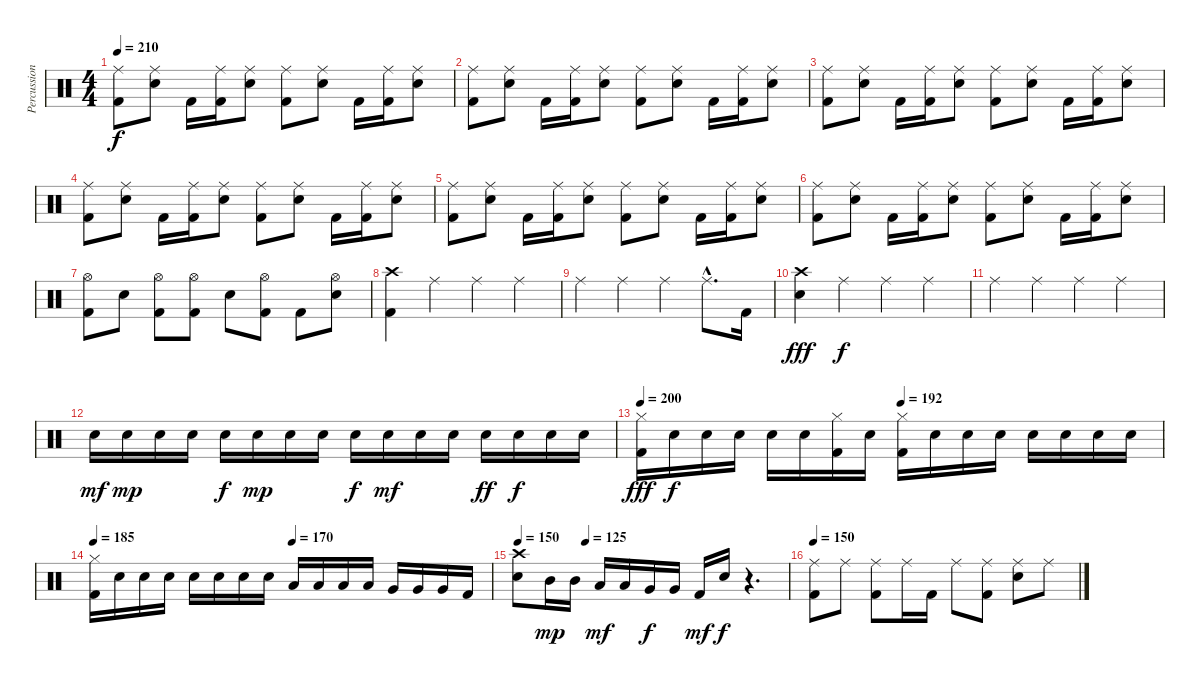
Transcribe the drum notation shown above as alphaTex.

\track ("Percussions" "Percussion") {instrument percussion}
\staff {score}
\articulation defaults
\ts (4 4)
\tempo 210
\clef neutral
\ks c
("Ride (middle)" "Kick (hit) 2").8{dy f} ("Ride (middle)" "Snare (hit) 2").8 "Kick (hit) 2".16 ("Ride (middle)" "Kick (hit) 2").16 ("Ride (middle)" "Snare (hit) 2").8 ("Ride (middle)" "Kick (hit) 2").8 ("Ride (middle)" "Snare (hit) 2").8 "Kick (hit) 2".16 ("Ride (middle)" "Kick (hit) 2").16 ("Ride (middle)" "Snare (hit) 2").8 |
("Ride (middle)" "Kick (hit) 2").8 ("Ride (middle)" "Snare (hit) 2").8 "Kick (hit) 2".16 ("Ride (middle)" "Kick (hit) 2").16 ("Ride (middle)" "Snare (hit) 2").8 ("Ride (middle)" "Kick (hit) 2").8 ("Ride (middle)" "Snare (hit) 2").8 "Kick (hit) 2".16 ("Ride (middle)" "Kick (hit) 2").16 ("Ride (middle)" "Snare (hit) 2").8 |
("Ride (middle)" "Kick (hit) 2").8 ("Ride (middle)" "Snare (hit) 2").8 "Kick (hit) 2".16 ("Ride (middle)" "Kick (hit) 2").16 ("Ride (middle)" "Snare (hit) 2").8 ("Ride (middle)" "Kick (hit) 2").8 ("Ride (middle)" "Snare (hit) 2").8 "Kick (hit) 2".16 ("Ride (middle)" "Kick (hit) 2").16 ("Ride (middle)" "Snare (hit) 2").8 |
("Ride (middle)" "Kick (hit) 2").8 ("Ride (middle)" "Snare (hit) 2").8 "Kick (hit) 2".16 ("Ride (middle)" "Kick (hit) 2").16 ("Ride (middle)" "Snare (hit) 2").8 ("Ride (middle)" "Kick (hit) 2").8 ("Ride (middle)" "Snare (hit) 2").8 "Kick (hit) 2".16 ("Ride (middle)" "Kick (hit) 2").16 ("Ride (middle)" "Snare (hit) 2").8 |
("Ride (middle)" "Kick (hit) 2").8 ("Ride (middle)" "Snare (hit) 2").8 "Kick (hit) 2".16 ("Ride (middle)" "Kick (hit) 2").16 ("Ride (middle)" "Snare (hit) 2").8 ("Ride (middle)" "Kick (hit) 2").8 ("Ride (middle)" "Snare (hit) 2").8 "Kick (hit) 2".16 ("Ride (middle)" "Kick (hit) 2").16 ("Ride (middle)" "Snare (hit) 2").8 |
("Ride (middle)" "Kick (hit) 2").8 ("Ride (middle)" "Snare (hit) 2").8 "Kick (hit) 2".16 ("Ride (middle)" "Kick (hit) 2").16 ("Ride (middle)" "Snare (hit) 2").8 ("Ride (middle)" "Kick (hit) 2").8 ("Ride (middle)" "Snare (hit) 2").8 "Kick (hit) 2".16 ("Ride (middle)" "Kick (hit) 2").16 ("Ride (middle)" "Snare (hit) 2").8 |
("Hi-Hat (open)" "Kick (hit) 2").8 "Snare (hit) 2".8 ("Hi-Hat (open)" "Kick (hit) 2").8 ("Hi-Hat (open)" "Kick (hit) 2").8 "Snare (hit) 2".8 ("Hi-Hat (open)" "Kick (hit) 2").8 "Kick (hit) 2".8 ("Hi-Hat (open)" "Snare (hit) 2").8 |
("Crash high (hit)" "Kick (hit) 2").4 "Ride (middle)".4 "Ride (middle)".4 "Ride (middle)".4 |
"Ride (middle)".4 "Ride (middle)".4 "Ride (middle)".4 "Ride (middle)"{hac}.8{d} "Kick (hit) 2".16 |
("Crash high (hit)" "Snare (hit) 2").4{dy fff} "Ride (middle)".4{dy f} "Ride (middle)".4 "Ride (middle)".4 |
"Ride (middle)".4 "Ride (middle)".4 "Ride (middle)".4 "Ride (middle)".4 |
"Snare (hit) 2".16{dy mf} "Snare (hit) 2".16{dy mp} "Snare (hit) 2".16 "Snare (hit) 2".16 "Snare (hit) 2".16{dy f} "Snare (hit) 2".16{dy mp} "Snare (hit) 2".16 "Snare (hit) 2".16 "Snare (hit) 2".16{dy f} "Snare (hit) 2".16{dy mf} "Snare (hit) 2".16 "Snare (hit) 2".16 "Snare (hit) 2".16{dy ff} "Snare (hit) 2".16{dy f} "Snare (hit) 2".16 "Snare (hit) 2".16 |
\tempo 200
\tempo (192 0.5)
("Hi-Hat (closed)" "Kick (hit) 2").16{dy fff} "Snare (hit) 2".16{dy f} "Snare (hit) 2".16 "Snare (hit) 2".16 "Snare (hit) 2".16 "Snare (hit) 2".16 ("Hi-Hat (closed)" "Kick (hit) 2").16 "Snare (hit) 2".16 ("Hi-Hat (closed)" "Kick (hit) 2").16 "Snare (hit) 2".16 "Snare (hit) 2".16 "Snare (hit) 2".16 "Snare (hit) 2".16 "Snare (hit) 2".16 "Snare (hit) 2".16 "Snare (hit) 2".16 |
\tempo 185
\tempo (170 0.5)
("Hi-Hat (closed)" "Kick (hit) 2").16 "Snare (hit) 2".16 "Snare (hit) 2".16 "Snare (hit) 2".16 "Snare (hit) 2".16 "Snare (hit) 2".16 "Snare (hit) 2".16 "Snare (hit) 2".16 "Low Tom (hit)".16 "Low Tom (hit)".16 "Low Tom (hit)".16 "Low Tom (hit)".16 "Very Low Tom (hit)".16 "Very Low Tom (hit)".16 "Very Low Tom (hit)".16 "Kick (hit) 2".16 |
\tempo 150
\tempo (125 0.25)
("Crash high (hit)" "Snare (hit) 2").8 "Mid Tom (hit)".16{dy mp} "Mid Tom (hit)".16 "Low Tom (hit)".16{dy mf} "Low Tom (hit)".16 "Very Low Tom (hit)".16{dy f} "Very Low Tom (hit)".16 "Kick (hit) 2".16{dy mf} "Snare (hit) 2".16{dy f} r.4{d} |
\tempo 150
("Ride (middle)" "Kick (hit) 2").8 "Ride (middle)".8 ("Ride (middle)" "Kick (hit) 2").8 "Ride (middle)".16 "Kick (hit) 2".16 "Ride (middle)".8 ("Ride (middle)" "Kick (hit) 2").8 ("Ride (middle)" "Snare (hit) 2").8 "Ride (middle)".8
